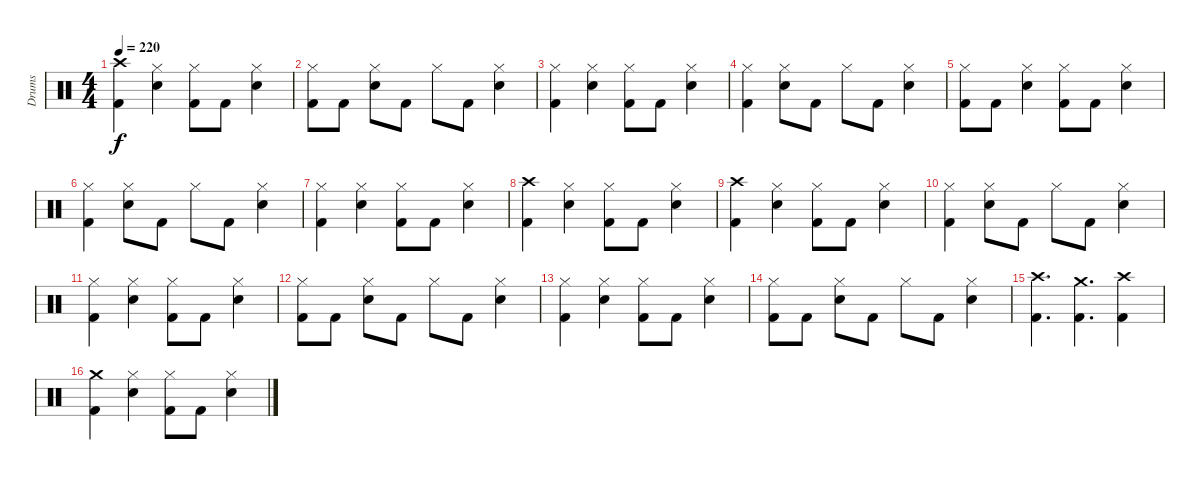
\track ("Drums" "Drums") {instrument percussion}
\staff {score}
\articulation defaults
\ts (4 4)
\tempo 220
\clef neutral
\ks aminor
("Kick (hit) 2" "Crash high (hit)").4{dy f} ("Snare (hit) 2" "Hi-Hat (closed)").4 ("Kick (hit) 2" "Hi-Hat (closed)").8 "Kick (hit) 2".8 ("Snare (hit) 2" "Hi-Hat (closed)").4 |
("Kick (hit) 2" "Hi-Hat (closed)").8 "Kick (hit) 2".8 ("Snare (hit) 2" "Hi-Hat (closed)").8 "Kick (hit) 2".8 "Hi-Hat (closed)".8 "Kick (hit) 2".8 ("Snare (hit) 2" "Hi-Hat (closed)").4 |
("Kick (hit) 2" "Hi-Hat (closed)").4 ("Snare (hit) 2" "Hi-Hat (closed)").4 ("Kick (hit) 2" "Hi-Hat (closed)").8 "Kick (hit) 2".8 ("Snare (hit) 2" "Hi-Hat (closed)").4 |
("Kick (hit) 2" "Hi-Hat (closed)").4 ("Snare (hit) 2" "Hi-Hat (closed)").8 "Kick (hit) 2".8 "Hi-Hat (closed)".8 "Kick (hit) 2".8 ("Snare (hit) 2" "Hi-Hat (closed)").4 |
("Kick (hit) 2" "Hi-Hat (closed)").8 "Kick (hit) 2".8 ("Snare (hit) 2" "Hi-Hat (closed)").4 ("Kick (hit) 2" "Hi-Hat (closed)").8 "Kick (hit) 2".8 ("Snare (hit) 2" "Hi-Hat (closed)").4 |
("Kick (hit) 2" "Hi-Hat (closed)").4 ("Snare (hit) 2" "Hi-Hat (closed)").8 "Kick (hit) 2".8 "Hi-Hat (closed)".8 "Kick (hit) 2".8 ("Snare (hit) 2" "Hi-Hat (closed)").4 |
("Kick (hit) 2" "Hi-Hat (closed)").4 ("Snare (hit) 2" "Hi-Hat (closed)").4 ("Kick (hit) 2" "Hi-Hat (closed)").8 "Kick (hit) 2".8 ("Snare (hit) 2" "Hi-Hat (closed)").4 |
("Kick (hit) 2" "Crash high (hit)").4 ("Snare (hit) 2" "Hi-Hat (closed)").4 ("Kick (hit) 2" "Hi-Hat (closed)").8 "Kick (hit) 2".8 ("Snare (hit) 2" "Hi-Hat (closed)").4 |
("Kick (hit) 2" "Crash high (hit)").4 ("Snare (hit) 2" "Hi-Hat (closed)").4 ("Kick (hit) 2" "Hi-Hat (closed)").8 "Kick (hit) 2".8 ("Snare (hit) 2" "Hi-Hat (closed)").4 |
("Kick (hit) 2" "Hi-Hat (closed)").4 ("Snare (hit) 2" "Hi-Hat (closed)").8 "Kick (hit) 2".8 "Hi-Hat (closed)".8 "Kick (hit) 2".8 ("Snare (hit) 2" "Hi-Hat (closed)").4 |
("Kick (hit) 2" "Hi-Hat (closed)").4 ("Snare (hit) 2" "Hi-Hat (closed)").4 ("Kick (hit) 2" "Hi-Hat (closed)").8 "Kick (hit) 2".8 ("Snare (hit) 2" "Hi-Hat (closed)").4 |
("Kick (hit) 2" "Hi-Hat (closed)").8 "Kick (hit) 2".8 ("Snare (hit) 2" "Hi-Hat (closed)").8 "Kick (hit) 2".8 "Hi-Hat (closed)".8 "Kick (hit) 2".8 ("Snare (hit) 2" "Hi-Hat (closed)").4 |
("Kick (hit) 2" "Hi-Hat (closed)").4 ("Snare (hit) 2" "Hi-Hat (closed)").4 ("Kick (hit) 2" "Hi-Hat (closed)").8 "Kick (hit) 2".8 ("Snare (hit) 2" "Hi-Hat (closed)").4 |
("Kick (hit) 2" "Hi-Hat (closed)").8 "Kick (hit) 2".8 ("Snare (hit) 2" "Hi-Hat (closed)").8 "Kick (hit) 2".8 "Hi-Hat (closed)".8 "Kick (hit) 2".8 ("Snare (hit) 2" "Hi-Hat (closed)").4 |
("Kick (hit) 2" "Crash high (hit)").4{d} ("Kick (hit) 2" "Crash medium (hit)").4{d} ("Kick (hit) 2" "Crash high (hit)").4 |
("Kick (hit) 2" "Crash medium (hit)").4 ("Snare (hit) 2" "Hi-Hat (closed)").4 ("Kick (hit) 2" "Hi-Hat (closed)").8 "Kick (hit) 2".8 ("Snare (hit) 2" "Hi-Hat (closed)").4
